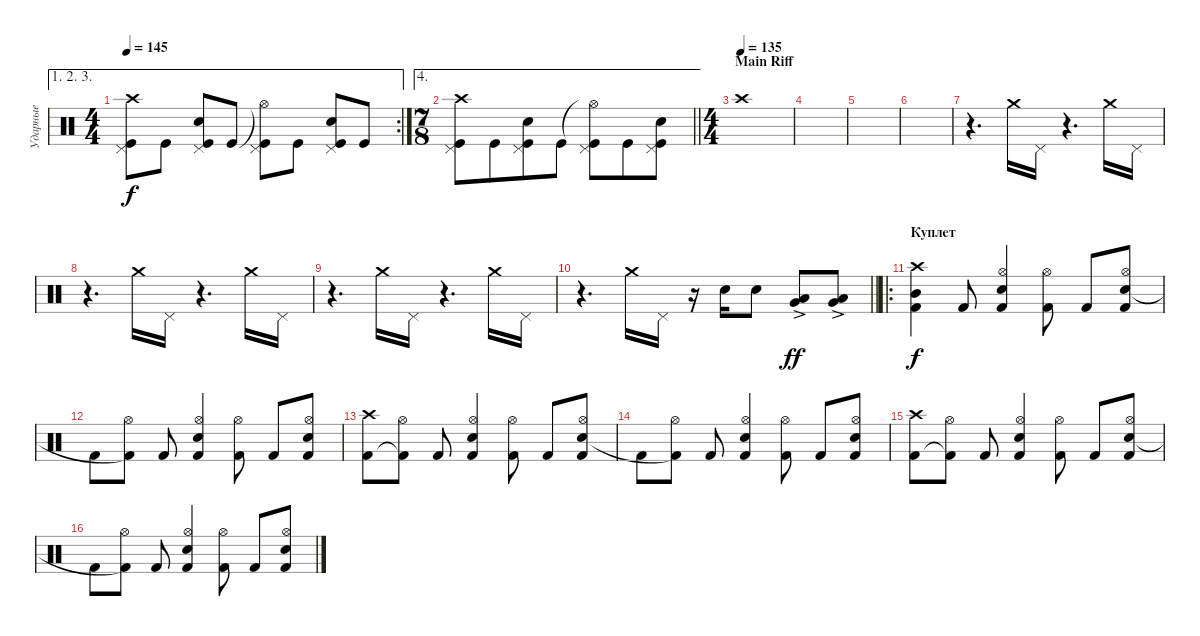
\track ("Ударные" "Ударные") {instrument percussion}
\staff
\articulation defaults
\ae (1 2 3)
\rc 2
\ts (4 4)
\tempo 145
\clef neutral
\ks c
("Crash high (hit)" "Pedal Hi-Hat (hit)" "Kick (hit)").8{dy f} "Kick (hit)".8 ("Pedal Hi-Hat (hit)" "Snare (hit) 2" "Kick (hit)").8 "Kick (hit)".8 ("Hi-Hat (open)"{t} "Pedal Hi-Hat (hit)" "Kick (hit)").8 "Kick (hit)".8 ("Pedal Hi-Hat (hit)" "Snare (hit) 2" "Kick (hit)").8 "Kick (hit)".8 |
\ae 4
\ts (7 8)
\barLineRight lightlight
("Crash high (hit)" "Pedal Hi-Hat (hit)" "Kick (hit)").8 "Kick (hit)".8 ("Pedal Hi-Hat (hit)" "Snare (hit) 2" "Kick (hit)").8 "Kick (hit)".8 ("Hi-Hat (open)"{t} "Pedal Hi-Hat (hit)" "Kick (hit)").8 "Kick (hit)".8 ("Pedal Hi-Hat (hit)" "Snare (hit) 2" "Kick (hit)").8 |
\ts (4 4)
\section ("" "Main Riff")
\tempo (135)
"Crash high (hit)".1 |
|
|
|
r.4{d} "Crash medium (hit)".16 "Pedal Hi-Hat (hit)".16 r.4{d} "Crash medium (hit)".16 "Pedal Hi-Hat (hit)".16 |
r.4{d} "Crash medium (hit)".16 "Pedal Hi-Hat (hit)".16 r.4{d} "Crash medium (hit)".16 "Pedal Hi-Hat (hit)".16 |
r.4{d} "Crash medium (hit)".16 "Pedal Hi-Hat (hit)".16 r.4{d} "Crash medium (hit)".16 "Pedal Hi-Hat (hit)".16 |
\barLineRight lightlight
r.4{d} "Crash medium (hit)".16 "Pedal Hi-Hat (hit)".16 r.16 "Snare (hit) 2".16 "Snare (hit) 2".8 ("Low Floor Tom (hit)"{ac} "Very Low Tom (hit)").8{dy ff} ("Very Low Tom (hit)"{ac} "Low Tom (hit)").8 |
\ro
\section ("" "Куплет")
("Crash high (hit)" "Mid Tom (hit)" "Kick (hit) 2").4{dy f} "Kick (hit) 2".8 ("Hi-Hat (open)" "Snare (hit) 2" "Kick (hit) 2").4 ("Hi-Hat (open)" "Kick (hit) 2").8 "Kick (hit) 2".8 ("Hi-Hat (open)" "Snare (hit) 2" "Kick (hit) 2").8 |
"Kick (hit) 2".8 ("Hi-Hat (open)" "Kick (hit) 2"{t}).8 "Kick (hit) 2".8 ("Hi-Hat (open)" "Snare (hit) 2" "Kick (hit) 2").4 ("Hi-Hat (open)" "Kick (hit) 2").8 "Kick (hit) 2".8 ("Hi-Hat (open)" "Snare (hit) 2" "Kick (hit) 2").8 |
("Crash high (hit)" "Kick (hit) 2").8 ("Hi-Hat (open)" "Kick (hit) 2"{t}).8 "Kick (hit) 2".8 ("Hi-Hat (open)" "Snare (hit) 2" "Kick (hit) 2").4 ("Hi-Hat (open)" "Kick (hit) 2").8 "Kick (hit) 2".8 ("Hi-Hat (open)" "Snare (hit) 2" "Kick (hit) 2").8 |
"Kick (hit) 2".8 ("Hi-Hat (open)" "Kick (hit) 2"{t}).8 "Kick (hit) 2".8 ("Hi-Hat (open)" "Snare (hit) 2" "Kick (hit) 2").4 ("Hi-Hat (open)" "Kick (hit) 2").8 "Kick (hit) 2".8 ("Hi-Hat (open)" "Snare (hit) 2" "Kick (hit) 2").8 |
("Crash high (hit)" "Kick (hit) 2").8 ("Hi-Hat (open)" "Kick (hit) 2"{t}).8 "Kick (hit) 2".8 ("Hi-Hat (open)" "Snare (hit) 2" "Kick (hit) 2").4 ("Hi-Hat (open)" "Kick (hit) 2").8 "Kick (hit) 2".8 ("Hi-Hat (open)" "Snare (hit) 2" "Kick (hit) 2").8 |
"Kick (hit) 2".8 ("Hi-Hat (open)" "Kick (hit) 2"{t}).8 "Kick (hit) 2".8 ("Hi-Hat (open)" "Snare (hit) 2" "Kick (hit) 2").4 ("Hi-Hat (open)" "Kick (hit) 2").8 "Kick (hit) 2".8 ("Hi-Hat (open)" "Snare (hit) 2" "Kick (hit) 2").8
